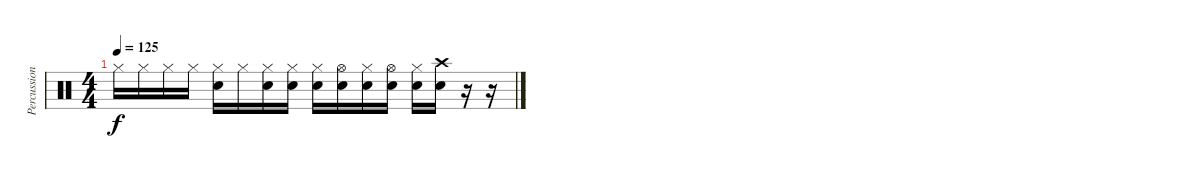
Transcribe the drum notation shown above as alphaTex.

\track ("Percussion" "Percussion") {instrument percussion}
\staff {score}
\articulation defaults
\ts (4 4)
\tempo 125
\clef neutral
\ks c "Hi-Hat (closed)".16{dy f} "Hi-Hat (closed)".16 "Hi-Hat (closed)".16 "Hi-Hat (closed)".16
("Hi-Hat (closed)" "Electric Snare (hit)").16 "Hi-Hat (closed)".16 ("Hi-Hat (closed)" "Electric Snare (hit)").16 ("Hi-Hat (closed)" "Electric Snare (hit)").16 ("Hi-Hat (closed)" "Electric Snare (hit)").16 ("Hi-Hat (open)" "Electric Snare (hit)").16 ("Hi-Hat (closed)" "Electric Snare (hit)").16 ("Hi-Hat (open)" "Electric Snare (hit)").16 ("Hi-Hat (closed)" "Electric Snare (hit)").16 ("Crash high (hit)" "Electric Snare (hit)").16 r.16 r.16
